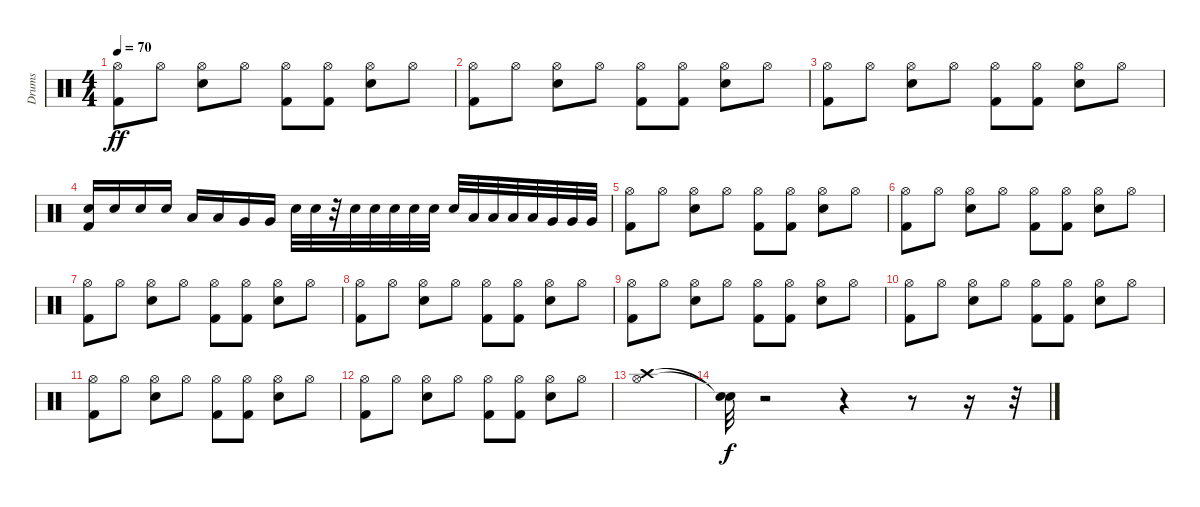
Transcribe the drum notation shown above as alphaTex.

\track ("Drums" "Drums") {instrument percussion}
\staff {score}
\articulation defaults
\ts (4 4)
\tempo 70
\clef neutral
\ks c
("Kick (hit) 2" "Hi-Hat (open)").8{dy ff} "Hi-Hat (open)".8 ("Hi-Hat (open)" "Electric Snare (hit)").8 "Hi-Hat (open)".8 ("Kick (hit) 2" "Hi-Hat (open)").8 ("Kick (hit) 2" "Hi-Hat (open)").8 ("Hi-Hat (open)" "Electric Snare (hit)").8 "Hi-Hat (open)".8 |
("Hi-Hat (open)" "Kick (hit) 2").8 "Hi-Hat (open)".8 ("Hi-Hat (open)" "Electric Snare (hit)").8 "Hi-Hat (open)".8 ("Hi-Hat (open)" "Kick (hit) 2").8 ("Hi-Hat (open)" "Kick (hit) 2").8 ("Hi-Hat (open)" "Electric Snare (hit)").8 "Hi-Hat (open)".8 |
("Hi-Hat (open)" "Kick (hit) 2").8 "Hi-Hat (open)".8 ("Hi-Hat (open)" "Electric Snare (hit)").8 "Hi-Hat (open)".8 ("Kick (hit) 2" "Hi-Hat (open)").8 ("Kick (hit) 2" "Hi-Hat (open)").8 ("Hi-Hat (open)" "Electric Snare (hit)").8 "Hi-Hat (open)".8 |
("Kick (hit) 2" "Electric Snare (hit)").16 "Electric Snare (hit)".16 "Electric Snare (hit)".16 "Electric Snare (hit)".16 "Low Tom (hit)".16 "Low Tom (hit)".16 "Very Low Tom (hit)".16 "Very Low Tom (hit)".16 "Electric Snare (hit)".32 "Electric Snare (hit)".32 r.32 "Electric Snare (hit)".32 "Electric Snare (hit)".32 "Electric Snare (hit)".32 "Electric Snare (hit)".32 "Electric Snare (hit)".32 "Electric Snare (hit)".32 "Low Tom (hit)".32 "Low Tom (hit)".32 "Low Tom (hit)".32 "Low Tom (hit)".32 "Very Low Tom (hit)".32 "Very Low Tom (hit)".32 "Very Low Tom (hit)".32 |
("Kick (hit) 2" "Hi-Hat (open)").8 "Hi-Hat (open)".8 ("Hi-Hat (open)" "Electric Snare (hit)").8 "Hi-Hat (open)".8 ("Kick (hit) 2" "Hi-Hat (open)").8 ("Kick (hit) 2" "Hi-Hat (open)").8 ("Hi-Hat (open)" "Electric Snare (hit)").8 "Hi-Hat (open)".8 |
("Hi-Hat (open)" "Kick (hit) 2").8 "Hi-Hat (open)".8 ("Hi-Hat (open)" "Electric Snare (hit)").8 "Hi-Hat (open)".8 ("Hi-Hat (open)" "Kick (hit) 2").8 ("Hi-Hat (open)" "Kick (hit) 2").8 ("Hi-Hat (open)" "Electric Snare (hit)").8 "Hi-Hat (open)".8 |
("Hi-Hat (open)" "Kick (hit) 2").8 "Hi-Hat (open)".8 ("Hi-Hat (open)" "Electric Snare (hit)").8 "Hi-Hat (open)".8 ("Kick (hit) 2" "Hi-Hat (open)").8 ("Kick (hit) 2" "Hi-Hat (open)").8 ("Hi-Hat (open)" "Electric Snare (hit)").8 "Hi-Hat (open)".8 |
("Hi-Hat (open)" "Kick (hit) 2").8 "Hi-Hat (open)".8 ("Hi-Hat (open)" "Electric Snare (hit)").8 "Hi-Hat (open)".8 ("Hi-Hat (open)" "Kick (hit) 2").8 ("Hi-Hat (open)" "Kick (hit) 2").8 ("Hi-Hat (open)" "Electric Snare (hit)").8 "Hi-Hat (open)".8 |
("Kick (hit) 2" "Hi-Hat (open)").8 "Hi-Hat (open)".8 ("Hi-Hat (open)" "Electric Snare (hit)").8 "Hi-Hat (open)".8 ("Kick (hit) 2" "Hi-Hat (open)").8 ("Kick (hit) 2" "Hi-Hat (open)").8 ("Hi-Hat (open)" "Electric Snare (hit)").8 "Hi-Hat (open)".8 |
("Hi-Hat (open)" "Kick (hit) 2").8 "Hi-Hat (open)".8 ("Hi-Hat (open)" "Electric Snare (hit)").8 "Hi-Hat (open)".8 ("Hi-Hat (open)" "Kick (hit) 2").8 ("Hi-Hat (open)" "Kick (hit) 2").8 ("Hi-Hat (open)" "Electric Snare (hit)").8 "Hi-Hat (open)".8 |
("Hi-Hat (open)" "Kick (hit) 2").8 "Hi-Hat (open)".8 ("Hi-Hat (open)" "Electric Snare (hit)").8 "Hi-Hat (open)".8 ("Kick (hit) 2" "Hi-Hat (open)").8 ("Kick (hit) 2" "Hi-Hat (open)").8 ("Hi-Hat (open)" "Electric Snare (hit)").8 "Hi-Hat (open)".8 |
("Hi-Hat (open)" "Kick (hit) 2").8 "Hi-Hat (open)".8 ("Hi-Hat (open)" "Electric Snare (hit)").8 "Hi-Hat (open)".8 ("Hi-Hat (open)" "Kick (hit) 2").8 ("Hi-Hat (open)" "Kick (hit) 2").8 ("Hi-Hat (open)" "Electric Snare (hit)").8 "Hi-Hat (open)".8 |
("Crash high (hit)" "Hi-Hat (open)").1 |
("Snare (hit)"{t} "Snare (hit)"{t}).32{dy f} r.2 r.4 r.8 r.16 r.32
